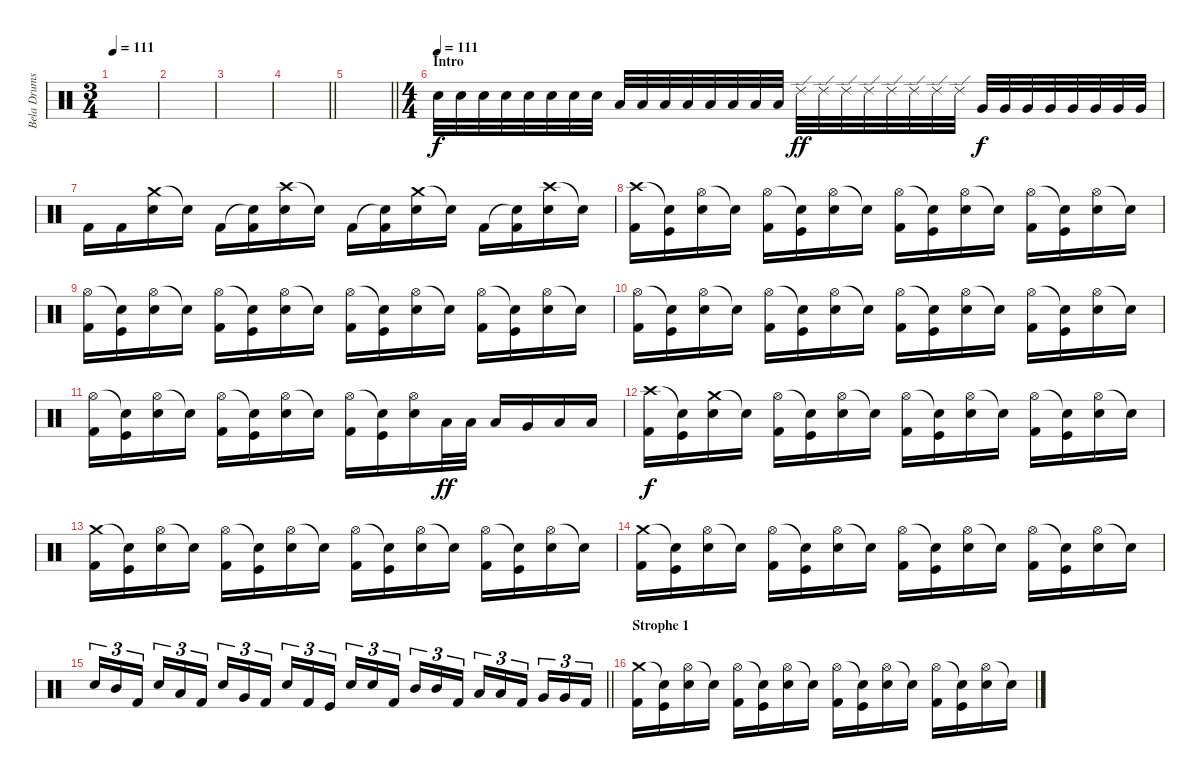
\track ("Bela Drums" "Bela Drums") {instrument percussion}
\staff {score}
\articulation defaults
\ts (3 4)
\tempo 111
\clef neutral
\ks c
|
|
|
\barLineRight lightlight
|
\barLineRight lightlight
|
\ts (4 4)
\section ("" "Intro")
\tempo (111)
"Snare (hit) 2".32 "Snare (hit) 2".32 "Snare (hit) 2".32 "Snare (hit) 2".32 "Snare (hit) 2".32 "Snare (hit) 2".32 "Snare (hit) 2".32 "Snare (hit) 2".32 "Low Tom (hit)".32{dy f} "Low Tom (hit)".32 "Low Tom (hit)".32 "Low Tom (hit)".32 "Low Tom (hit)".32 "Low Tom (hit)".32 "Low Tom (hit)".32 "Low Tom (hit)".32 "Ride (edge) 2".32{dy ff} "Ride (edge) 2".32 "Ride (edge) 2".32 "Ride (edge) 2".32 "Ride (edge) 2".32 "Ride (edge) 2".32 "Ride (edge) 2".32 "Ride (edge) 2".32 "Very Low Tom (hit)".32{dy f} "Very Low Tom (hit)".32 "Very Low Tom (hit)".32 "Very Low Tom (hit)".32 "Very Low Tom (hit)".32 "Very Low Tom (hit)".32 "Very Low Tom (hit)".32 "Very Low Tom (hit)".32 |
"Kick (hit) 2".16 "Kick (hit) 2".16 ("Crash medium (hit)" "Snare (hit) 2").16 "Snare (hit)"{t}.16 "Kick (hit) 2".16 ("Snare (hit)"{t} "Kick (hit) 2").16 ("Crash high (hit)" "Snare (hit) 2").16 "Snare (hit)"{t}.16 "Kick (hit) 2".16 ("Snare (hit)"{t} "Kick (hit) 2").16 ("Crash medium (hit)" "Snare (hit) 2").16 "Snare (hit)"{t}.16 "Kick (hit) 2".16 ("Snare (hit)"{t} "Kick (hit) 2").16 ("Crash high (hit)" "Snare (hit) 2").16 "Snare (hit)"{t}.16 |
("Crash high (hit)" "Kick (hit) 2").16 ("Snare (hit)"{t} "Kick (hit)").16 ("Hi-Hat (open)" "Snare (hit) 2").16 "Snare (hit)"{t}.16 ("Hi-Hat (open)" "Kick (hit) 2").16 ("Snare (hit)"{t} "Kick (hit)").16 ("Hi-Hat (open)" "Snare (hit) 2").16 "Snare (hit)"{t}.16 ("Hi-Hat (open)" "Kick (hit) 2").16 ("Snare (hit)"{t} "Kick (hit)").16 ("Hi-Hat (open)" "Snare (hit) 2").16 "Snare (hit)"{t}.16 ("Hi-Hat (open)" "Kick (hit) 2").16 ("Snare (hit)"{t} "Kick (hit)").16 ("Hi-Hat (open)" "Snare (hit) 2").16 "Snare (hit)"{t}.16 |
("Hi-Hat (open)" "Kick (hit) 2").16 ("Snare (hit)"{t} "Kick (hit)").16 ("Hi-Hat (open)" "Snare (hit) 2").16 "Snare (hit)"{t}.16 ("Hi-Hat (open)" "Kick (hit) 2").16 ("Snare (hit)"{t} "Kick (hit)").16 ("Hi-Hat (open)" "Snare (hit) 2").16 "Snare (hit)"{t}.16 ("Hi-Hat (open)" "Kick (hit) 2").16 ("Snare (hit)"{t} "Kick (hit)").16 ("Hi-Hat (open)" "Snare (hit) 2").16 "Snare (hit)"{t}.16 ("Hi-Hat (open)" "Kick (hit) 2").16 ("Snare (hit)"{t} "Kick (hit)").16 ("Hi-Hat (open)" "Snare (hit) 2").16 "Snare (hit)"{t}.16 |
("Hi-Hat (open)" "Kick (hit) 2").16 ("Snare (hit)"{t} "Kick (hit)").16 ("Hi-Hat (open)" "Snare (hit) 2").16 "Snare (hit)"{t}.16 ("Hi-Hat (open)" "Kick (hit) 2").16 ("Snare (hit)"{t} "Kick (hit)").16 ("Hi-Hat (open)" "Snare (hit) 2").16 "Snare (hit)"{t}.16 ("Hi-Hat (open)" "Kick (hit) 2").16 ("Snare (hit)"{t} "Kick (hit)").16 ("Hi-Hat (open)" "Snare (hit) 2").16 "Snare (hit)"{t}.16 ("Hi-Hat (open)" "Kick (hit) 2").16 ("Snare (hit)"{t} "Kick (hit)").16 ("Hi-Hat (open)" "Snare (hit) 2").16 "Snare (hit)"{t}.16 |
("Hi-Hat (open)" "Kick (hit) 2").16 ("Snare (hit)"{t} "Kick (hit)").16 ("Hi-Hat (open)" "Snare (hit) 2").16 "Snare (hit)"{t}.16 ("Hi-Hat (open)" "Kick (hit) 2").16 ("Snare (hit)"{t} "Kick (hit)").16 ("Hi-Hat (open)" "Snare (hit) 2").16 "Snare (hit)"{t}.16 ("Hi-Hat (open)" "Kick (hit) 2").16 ("Snare (hit)"{t} "Kick (hit)").16 ("Hi-Hat (open)" "Snare (hit) 2").16 "Low Tom (hit)".32{dy ff} "Low Tom (hit)".32 "Low Tom (hit)".16 "Very Low Tom (hit)".16 "Low Floor Tom (hit)".16 "Low Floor Tom (hit)".16 |
("Crash high (hit)" "Kick (hit) 2").16{dy f} ("Snare (hit)"{t} "Kick (hit)").16 ("Crash medium (hit)" "Snare (hit) 2").16 "Snare (hit)"{t}.16 ("Hi-Hat (open)" "Kick (hit) 2").16 ("Snare (hit)"{t} "Kick (hit)").16 ("Hi-Hat (open)" "Snare (hit) 2").16 "Snare (hit)"{t}.16 ("Hi-Hat (open)" "Kick (hit) 2").16 ("Snare (hit)"{t} "Kick (hit)").16 ("Hi-Hat (open)" "Snare (hit) 2").16 "Snare (hit)"{t}.16 ("Hi-Hat (open)" "Kick (hit) 2").16 ("Snare (hit)"{t} "Kick (hit)").16 ("Hi-Hat (open)" "Snare (hit) 2").16 "Snare (hit)"{t}.16 |
("Crash medium (hit)" "Kick (hit) 2").16 ("Snare (hit)"{t} "Kick (hit)").16 ("Hi-Hat (open)" "Snare (hit) 2").16 "Snare (hit)"{t}.16 ("Hi-Hat (open)" "Kick (hit) 2").16 ("Snare (hit)"{t} "Kick (hit)").16 ("Hi-Hat (open)" "Snare (hit) 2").16 "Snare (hit)"{t}.16 ("Hi-Hat (open)" "Kick (hit) 2").16 ("Snare (hit)"{t} "Kick (hit)").16 ("Hi-Hat (open)" "Snare (hit) 2").16 "Snare (hit)"{t}.16 ("Hi-Hat (open)" "Kick (hit) 2").16 ("Snare (hit)"{t} "Kick (hit)").16 ("Hi-Hat (open)" "Snare (hit) 2").16 "Snare (hit)"{t}.16 |
("Crash medium (hit)" "Kick (hit) 2").16 ("Snare (hit)"{t} "Kick (hit)").16 ("Hi-Hat (open)" "Snare (hit) 2").16 "Snare (hit)"{t}.16 ("Hi-Hat (open)" "Kick (hit) 2").16 ("Snare (hit)"{t} "Kick (hit)").16 ("Hi-Hat (open)" "Snare (hit) 2").16 "Snare (hit)"{t}.16 ("Hi-Hat (open)" "Kick (hit) 2").16 ("Snare (hit)"{t} "Kick (hit)").16 ("Hi-Hat (open)" "Snare (hit) 2").16 "Snare (hit)"{t}.16 ("Hi-Hat (open)" "Kick (hit) 2").16 ("Snare (hit)"{t} "Kick (hit)").16 ("Hi-Hat (open)" "Snare (hit) 2").16 "Snare (hit)"{t}.16 |
\barLineRight lightlight "Snare (hit) 2".16{tu (3 2)} "Mid Tom (hit)".16{tu (3 2)} "Kick (hit) 2".16{tu (3 2) beam splitsecondary} "Snare (hit) 2".16{tu (3 2)} "Low Tom (hit)".16{tu (3 2)} "Kick (hit) 2".16{tu (3 2)} "Snare (hit) 2".16{tu (3 2)} "Very Low Tom (hit)".16{tu (3 2)} "Kick (hit) 2".16{tu (3 2) beam splitsecondary} "Snare (hit) 2".16{tu (3 2)} "Kick (hit) 2".16{tu (3 2)} "Kick (hit)".16{tu (3 2)} "Snare (hit) 2".16{tu (3 2)} "Snare (hit) 2".16{tu (3 2)} "Kick (hit) 2".16{tu (3 2) beam splitsecondary} "Mid Tom (hit)".16{tu (3 2)} "Mid Tom (hit)".16{tu (3 2)} "Kick (hit) 2".16{tu (3 2)} "Low Tom (hit)".16{tu (3 2)} "Low Tom (hit)".16{tu (3 2)} "Kick (hit) 2".16{tu (3 2) beam splitsecondary} "Very Low Tom (hit)".16{tu (3 2)} "Very Low Tom (hit)".16{tu (3 2)} "Kick (hit) 2".16{tu (3 2)}
|
\section ("" "Strophe 1")
("Crash medium (hit)" "Kick (hit) 2").16 ("Snare (hit)"{t} "Kick (hit)").16 ("Hi-Hat (open)" "Snare (hit) 2").16 "Snare (hit)"{t}.16 ("Hi-Hat (open)" "Kick (hit) 2").16 ("Snare (hit)"{t} "Kick (hit)").16 ("Hi-Hat (open)" "Snare (hit) 2").16 "Snare (hit)"{t}.16 ("Hi-Hat (open)" "Kick (hit) 2").16 ("Snare (hit)"{t} "Kick (hit)").16 ("Hi-Hat (open)" "Snare (hit) 2").16 "Snare (hit)"{t}.16 ("Hi-Hat (open)" "Kick (hit) 2").16 ("Snare (hit)"{t} "Kick (hit)").16 ("Hi-Hat (open)" "Snare (hit) 2").16 "Snare (hit)"{t}.16
